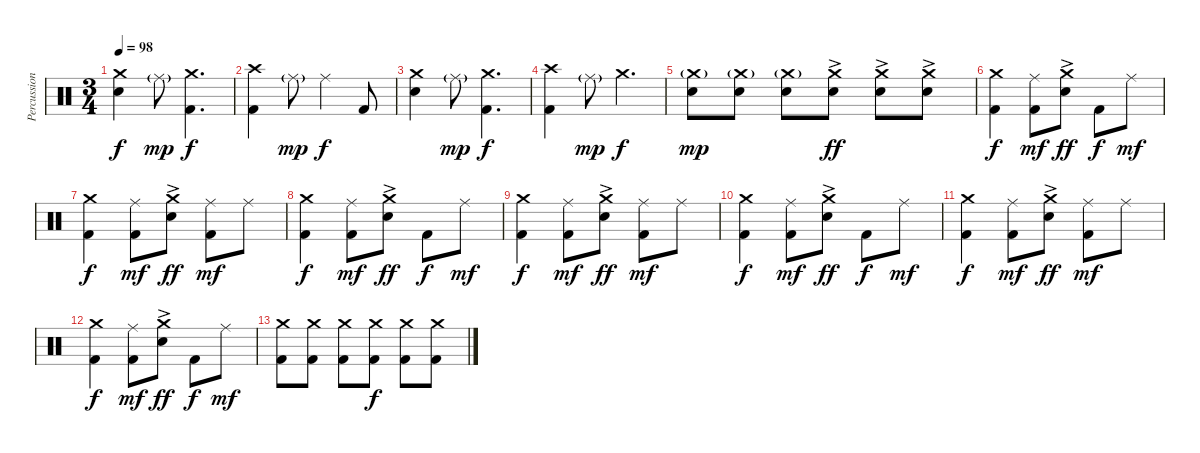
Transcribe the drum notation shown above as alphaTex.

\track ("Percussion" "Percussion") {instrument percussion}
\staff {score}
\articulation defaults
\ts (3 4)
\tempo 98
\clef neutral
\ks c
("Crash medium (hit)" "Electric Snare (hit)").4{dy f} "Ride (middle)"{g}.8{dy mp} ("Crash medium (hit)" "Kick (hit) 2").4{d dy f} |
("Crash high (hit)" "Kick (hit) 2").4 "Ride (middle)"{g}.8{dy mp} "Ride (middle)".4{dy f} "Kick (hit) 2".8 |
("Crash medium (hit)" "Electric Snare (hit)").4 "Ride (middle)"{g}.8{dy mp} ("Crash medium (hit)" "Kick (hit) 2").4{d dy f} |
("Crash high (hit)" "Kick (hit) 2").4 "Ride (middle)"{g}.8{dy mp} "Crash medium (hit)".4{d dy f} |
("Crash medium (hit)"{g} "Electric Snare (hit)").8{dy mp} ("Crash medium (hit)"{g} "Electric Snare (hit)").8 ("Crash medium (hit)"{g} "Electric Snare (hit)").8 ("Crash medium (hit)" "Electric Snare (hit)"{ac}).8{dy ff} ("Crash medium (hit)" "Electric Snare (hit)"{ac}).8 ("Crash medium (hit)" "Electric Snare (hit)"{ac}).8 |
("Crash medium (hit)" "Kick (hit) 2").4{dy f} ("Ride (middle)" "Kick (hit) 2").8{dy mf} ("Crash medium (hit)" "Electric Snare (hit)"{ac}).8{dy ff} "Kick (hit) 2".8{dy f} "Ride (middle)".8{dy mf} |
("Crash medium (hit)" "Kick (hit) 2").4{dy f} ("Ride (middle)" "Kick (hit) 2").8{dy mf} ("Crash medium (hit)" "Electric Snare (hit)"{ac}).8{dy ff} ("Ride (middle)" "Kick (hit) 2").8{dy mf} "Ride (middle)".8 |
("Crash medium (hit)" "Kick (hit) 2").4{dy f} ("Ride (middle)" "Kick (hit) 2").8{dy mf} ("Crash medium (hit)" "Electric Snare (hit)"{ac}).8{dy ff} "Kick (hit) 2".8{dy f} "Ride (middle)".8{dy mf} |
("Crash medium (hit)" "Kick (hit) 2").4{dy f} ("Ride (middle)" "Kick (hit) 2").8{dy mf} ("Crash medium (hit)" "Electric Snare (hit)"{ac}).8{dy ff} ("Ride (middle)" "Kick (hit) 2").8{dy mf} "Ride (middle)".8 |
("Crash medium (hit)" "Kick (hit) 2").4{dy f} ("Ride (middle)" "Kick (hit) 2").8{dy mf} ("Crash medium (hit)" "Electric Snare (hit)"{ac}).8{dy ff} "Kick (hit) 2".8{dy f} "Ride (middle)".8{dy mf} |
("Crash medium (hit)" "Kick (hit) 2").4{dy f} ("Ride (middle)" "Kick (hit) 2").8{dy mf} ("Crash medium (hit)" "Electric Snare (hit)"{ac}).8{dy ff} ("Ride (middle)" "Kick (hit) 2").8{dy mf} "Ride (middle)".8 |
("Crash medium (hit)" "Kick (hit) 2").4{dy f} ("Ride (middle)" "Kick (hit) 2").8{dy mf} ("Crash medium (hit)" "Electric Snare (hit)"{ac}).8{dy ff} "Kick (hit) 2".8{dy f} "Ride (middle)".8{dy mf} |
("Crash medium (hit)" "Kick (hit) 2").8 ("Crash medium (hit)" "Kick (hit) 2").8 ("Crash medium (hit)" "Kick (hit) 2").8 ("Crash medium (hit)" "Kick (hit) 2").8{dy f} ("Crash medium (hit)" "Kick (hit) 2").8 ("Crash medium (hit)" "Kick (hit) 2").8
